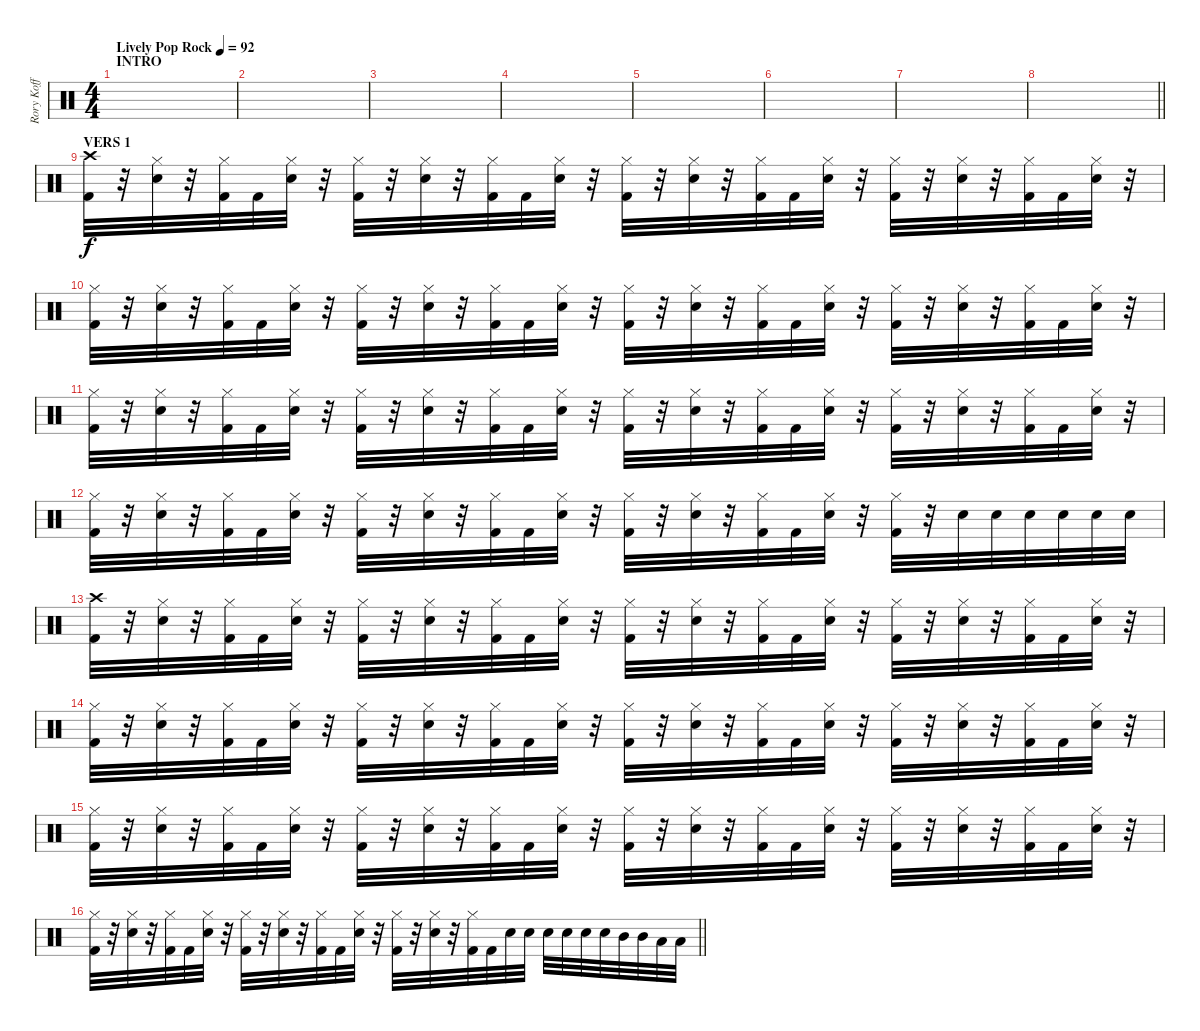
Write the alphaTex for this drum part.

\track ("Rory Koff" "Rory Koff") {instrument percussion}
\staff {score}
\articulation defaults
\ts (4 4)
\section ("" "INTRO")
\tempo (92 "Lively Pop Rock")
\clef neutral
\ks c
|
|
|
|
|
|
|
\barLineRight lightlight
|
\section ("" "VERS 1")
("Crash high (hit)" "Kick (hit) 2").32 r.32 ("Hi-Hat (closed)" "Snare (hit) 2").32 r.32 ("Hi-Hat (closed)" "Kick (hit) 2").32 "Kick (hit) 2".32 ("Hi-Hat (closed)" "Snare (hit) 2").32 r.32 ("Hi-Hat (closed)" "Kick (hit) 2").32 r.32 ("Hi-Hat (closed)" "Snare (hit) 2").32 r.32 ("Hi-Hat (closed)" "Kick (hit) 2").32 "Kick (hit) 2".32 ("Hi-Hat (closed)" "Snare (hit) 2").32 r.32 ("Hi-Hat (closed)" "Kick (hit) 2").32 r.32 ("Hi-Hat (closed)" "Snare (hit) 2").32 r.32 ("Hi-Hat (closed)" "Kick (hit) 2").32 "Kick (hit) 2".32 ("Hi-Hat (closed)" "Snare (hit) 2").32 r.32 ("Hi-Hat (closed)" "Kick (hit) 2").32 r.32 ("Hi-Hat (closed)" "Snare (hit) 2").32 r.32 ("Hi-Hat (closed)" "Kick (hit) 2").32 "Kick (hit) 2".32 ("Hi-Hat (closed)" "Snare (hit) 2").32 r.32 |
("Hi-Hat (closed)" "Kick (hit) 2").32 r.32 ("Hi-Hat (closed)" "Snare (hit) 2").32 r.32 ("Hi-Hat (closed)" "Kick (hit) 2").32 "Kick (hit) 2".32 ("Hi-Hat (closed)" "Snare (hit) 2").32 r.32 ("Hi-Hat (closed)" "Kick (hit) 2").32 r.32 ("Hi-Hat (closed)" "Snare (hit) 2").32 r.32 ("Hi-Hat (closed)" "Kick (hit) 2").32 "Kick (hit) 2".32 ("Hi-Hat (closed)" "Snare (hit) 2").32 r.32 ("Hi-Hat (closed)" "Kick (hit) 2").32 r.32 ("Hi-Hat (closed)" "Snare (hit) 2").32 r.32 ("Hi-Hat (closed)" "Kick (hit) 2").32 "Kick (hit) 2".32 ("Hi-Hat (closed)" "Snare (hit) 2").32 r.32 ("Hi-Hat (closed)" "Kick (hit) 2").32 r.32 ("Hi-Hat (closed)" "Snare (hit) 2").32 r.32 ("Hi-Hat (closed)" "Kick (hit) 2").32 "Kick (hit) 2".32 ("Hi-Hat (closed)" "Snare (hit) 2").32 r.32 |
("Hi-Hat (closed)" "Kick (hit) 2").32 r.32 ("Hi-Hat (closed)" "Snare (hit) 2").32 r.32 ("Hi-Hat (closed)" "Kick (hit) 2").32 "Kick (hit) 2".32 ("Hi-Hat (closed)" "Snare (hit) 2").32 r.32 ("Hi-Hat (closed)" "Kick (hit) 2").32 r.32 ("Hi-Hat (closed)" "Snare (hit) 2").32 r.32 ("Hi-Hat (closed)" "Kick (hit) 2").32 "Kick (hit) 2".32 ("Hi-Hat (closed)" "Snare (hit) 2").32 r.32 ("Hi-Hat (closed)" "Kick (hit) 2").32 r.32 ("Hi-Hat (closed)" "Snare (hit) 2").32 r.32 ("Hi-Hat (closed)" "Kick (hit) 2").32 "Kick (hit) 2".32 ("Hi-Hat (closed)" "Snare (hit) 2").32 r.32 ("Hi-Hat (closed)" "Kick (hit) 2").32 r.32 ("Hi-Hat (closed)" "Snare (hit) 2").32 r.32 ("Hi-Hat (closed)" "Kick (hit) 2").32 "Kick (hit) 2".32 ("Hi-Hat (closed)" "Snare (hit) 2").32 r.32 |
("Hi-Hat (closed)" "Kick (hit) 2").32 r.32 ("Hi-Hat (closed)" "Snare (hit) 2").32 r.32 ("Hi-Hat (closed)" "Kick (hit) 2").32 "Kick (hit) 2".32 ("Hi-Hat (closed)" "Snare (hit) 2").32 r.32 ("Hi-Hat (closed)" "Kick (hit) 2").32 r.32 ("Hi-Hat (closed)" "Snare (hit) 2").32 r.32 ("Hi-Hat (closed)" "Kick (hit) 2").32 "Kick (hit) 2".32 ("Hi-Hat (closed)" "Snare (hit) 2").32 r.32 ("Hi-Hat (closed)" "Kick (hit) 2").32 r.32 ("Hi-Hat (closed)" "Snare (hit) 2").32 r.32 ("Hi-Hat (closed)" "Kick (hit) 2").32 "Kick (hit) 2".32 ("Hi-Hat (closed)" "Snare (hit) 2").32 r.32 ("Hi-Hat (closed)" "Kick (hit) 2").32 r.32 "Snare (hit) 2".32 "Snare (hit) 2".32 "Snare (hit) 2".32 "Snare (hit) 2".32 "Snare (hit) 2".32 "Snare (hit) 2".32 |
("Crash high (hit)" "Kick (hit) 2").32 r.32 ("Hi-Hat (closed)" "Snare (hit) 2").32 r.32 ("Hi-Hat (closed)" "Kick (hit) 2").32 "Kick (hit) 2".32 ("Hi-Hat (closed)" "Snare (hit) 2").32 r.32 ("Hi-Hat (closed)" "Kick (hit) 2").32 r.32 ("Hi-Hat (closed)" "Snare (hit) 2").32 r.32 ("Hi-Hat (closed)" "Kick (hit) 2").32 "Kick (hit) 2".32 ("Hi-Hat (closed)" "Snare (hit) 2").32 r.32 ("Hi-Hat (closed)" "Kick (hit) 2").32 r.32 ("Hi-Hat (closed)" "Snare (hit) 2").32 r.32 ("Hi-Hat (closed)" "Kick (hit) 2").32 "Kick (hit) 2".32 ("Hi-Hat (closed)" "Snare (hit) 2").32 r.32 ("Hi-Hat (closed)" "Kick (hit) 2").32 r.32 ("Hi-Hat (closed)" "Snare (hit) 2").32 r.32 ("Hi-Hat (closed)" "Kick (hit) 2").32 "Kick (hit) 2".32 ("Hi-Hat (closed)" "Snare (hit) 2").32 r.32 |
("Hi-Hat (closed)" "Kick (hit) 2").32 r.32 ("Hi-Hat (closed)" "Snare (hit) 2").32 r.32 ("Hi-Hat (closed)" "Kick (hit) 2").32 "Kick (hit) 2".32 ("Hi-Hat (closed)" "Snare (hit) 2").32 r.32 ("Hi-Hat (closed)" "Kick (hit) 2").32 r.32 ("Hi-Hat (closed)" "Snare (hit) 2").32 r.32 ("Hi-Hat (closed)" "Kick (hit) 2").32 "Kick (hit) 2".32 ("Hi-Hat (closed)" "Snare (hit) 2").32 r.32 ("Hi-Hat (closed)" "Kick (hit) 2").32 r.32 ("Hi-Hat (closed)" "Snare (hit) 2").32 r.32 ("Hi-Hat (closed)" "Kick (hit) 2").32 "Kick (hit) 2".32 ("Hi-Hat (closed)" "Snare (hit) 2").32 r.32 ("Hi-Hat (closed)" "Kick (hit) 2").32 r.32 ("Hi-Hat (closed)" "Snare (hit) 2").32 r.32 ("Hi-Hat (closed)" "Kick (hit) 2").32 "Kick (hit) 2".32 ("Hi-Hat (closed)" "Snare (hit) 2").32 r.32 |
("Hi-Hat (closed)" "Kick (hit) 2").32 r.32 ("Hi-Hat (closed)" "Snare (hit) 2").32 r.32 ("Hi-Hat (closed)" "Kick (hit) 2").32 "Kick (hit) 2".32 ("Hi-Hat (closed)" "Snare (hit) 2").32 r.32 ("Hi-Hat (closed)" "Kick (hit) 2").32 r.32 ("Hi-Hat (closed)" "Snare (hit) 2").32 r.32 ("Hi-Hat (closed)" "Kick (hit) 2").32 "Kick (hit) 2".32 ("Hi-Hat (closed)" "Snare (hit) 2").32 r.32 ("Hi-Hat (closed)" "Kick (hit) 2").32 r.32 ("Hi-Hat (closed)" "Snare (hit) 2").32 r.32 ("Hi-Hat (closed)" "Kick (hit) 2").32 "Kick (hit) 2".32 ("Hi-Hat (closed)" "Snare (hit) 2").32 r.32 ("Hi-Hat (closed)" "Kick (hit) 2").32 r.32 ("Hi-Hat (closed)" "Snare (hit) 2").32 r.32 ("Hi-Hat (closed)" "Kick (hit) 2").32 "Kick (hit) 2".32 ("Hi-Hat (closed)" "Snare (hit) 2").32 r.32 |
\barLineRight lightlight
("Hi-Hat (closed)" "Kick (hit) 2").32 r.32 ("Hi-Hat (closed)" "Snare (hit) 2").32 r.32 ("Hi-Hat (closed)" "Kick (hit) 2").32 "Kick (hit) 2".32 ("Hi-Hat (closed)" "Snare (hit) 2").32 r.32 ("Hi-Hat (closed)" "Kick (hit) 2").32 r.32 ("Hi-Hat (closed)" "Snare (hit) 2").32 r.32 ("Hi-Hat (closed)" "Kick (hit) 2").32 "Kick (hit) 2".32 ("Hi-Hat (closed)" "Snare (hit) 2").32 r.32 ("Hi-Hat (closed)" "Kick (hit) 2").32 r.32 ("Hi-Hat (closed)" "Snare (hit) 2").32 r.32 ("Hi-Hat (closed)" "Kick (hit) 2").32 "Kick (hit) 2".32 "Snare (hit) 2".32 "Snare (hit) 2".32 "Snare (hit) 2".32 "Snare (hit) 2".32 "Snare (hit) 2".32 "Snare (hit) 2".32 "Mid Tom (hit)".32 "Mid Tom (hit)".32 "Low Tom (hit)".32 "Low Tom (hit)".32
